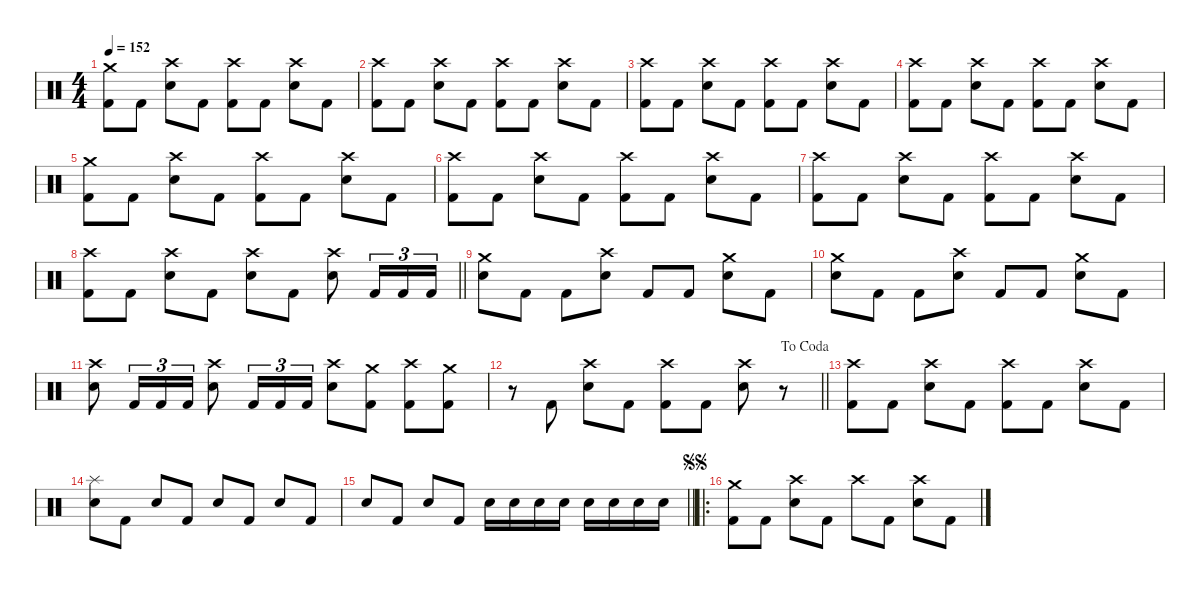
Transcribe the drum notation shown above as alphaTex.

\defaultSystemsLayout 4
\hideDynamics
\bracketExtendMode nobrackets
\singleTrackTrackNamePolicy hidden
\multiTrackTrackNamePolicy hidden
\firstSystemTrackNameMode fullname
\firstSystemTrackNameOrientation horizontal
\otherSystemsTrackNameOrientation horizontal
\track ("Percussion" "drm.") {defaultSystemsLayout 4 instrument percussion}
\staff {score}
\articulation defaults
\ts (4 4)
\tempo 152
\clef neutral
\ks c
("Crash medium (hit)" "Kick (hit) 2").8{dy f beam Down} "Kick (hit) 2".8{beam Down} ("Crash high (hit)" "Snare (hit) 2").8{beam Down} "Kick (hit) 2".8{beam Down} ("Crash high (hit)" "Kick (hit) 2").8{beam Down} "Kick (hit) 2".8{beam Down} ("Crash high (hit)" "Snare (hit) 2").8{beam Down} "Kick (hit) 2".8{beam Down} |
("Crash high (hit)" "Kick (hit) 2").8{beam Down} "Kick (hit) 2".8{beam Down} ("Crash high (hit)" "Snare (hit) 2").8{beam Down} "Kick (hit) 2".8{beam Down} ("Crash high (hit)" "Kick (hit) 2").8{beam Down} "Kick (hit) 2".8{beam Down} ("Crash high (hit)" "Snare (hit) 2").8{beam Down} "Kick (hit) 2".8{beam Down} |
("Crash high (hit)" "Kick (hit) 2").8{beam Down} "Kick (hit) 2".8{beam Down} ("Crash high (hit)" "Snare (hit) 2").8{beam Down} "Kick (hit) 2".8{beam Down} ("Crash high (hit)" "Kick (hit) 2").8{beam Down} "Kick (hit) 2".8{beam Down} ("Crash high (hit)" "Snare (hit) 2").8{beam Down} "Kick (hit) 2".8{beam Down} |
("Crash high (hit)" "Kick (hit) 2").8{beam Down} "Kick (hit) 2".8{beam Down} ("Crash high (hit)" "Snare (hit) 2").8{beam Down} "Kick (hit) 2".8{beam Down} ("Crash high (hit)" "Kick (hit) 2").8{beam Down} "Kick (hit) 2".8{beam Down} ("Crash high (hit)" "Snare (hit) 2").8{beam Down} "Kick (hit) 2".8{beam Down} |
("Crash medium (hit)" "Kick (hit) 2").8{beam Down} "Kick (hit) 2".8{beam Down} ("Crash high (hit)" "Snare (hit) 2").8{beam Down} "Kick (hit) 2".8{beam Down} ("Crash high (hit)" "Kick (hit) 2").8{beam Down} "Kick (hit) 2".8{beam Down} ("Crash high (hit)" "Snare (hit) 2").8{beam Down} "Kick (hit) 2".8{beam Down} |
("Crash high (hit)" "Kick (hit) 2").8{beam Down} "Kick (hit) 2".8{beam Down} ("Crash high (hit)" "Snare (hit) 2").8{beam Down} "Kick (hit) 2".8{beam Down} ("Crash high (hit)" "Kick (hit) 2").8{beam Down} "Kick (hit) 2".8{beam Down} ("Crash high (hit)" "Snare (hit) 2").8{beam Down} "Kick (hit) 2".8{beam Down} |
("Crash high (hit)" "Kick (hit) 2").8{beam Down} "Kick (hit) 2".8{beam Down} ("Crash high (hit)" "Snare (hit) 2").8{beam Down} "Kick (hit) 2".8{beam Down} ("Crash high (hit)" "Kick (hit) 2").8{beam Down} "Kick (hit) 2".8{beam Down} ("Crash high (hit)" "Snare (hit) 2").8{beam Down} "Kick (hit) 2".8{beam Down} |
\barLineRight lightlight
("Crash high (hit)" "Kick (hit) 2").8{beam Down} "Kick (hit) 2".8{beam Down} ("Crash high (hit)" "Snare (hit) 2").8{beam Down} "Kick (hit) 2".8{beam Down} ("Crash high (hit)" "Snare (hit) 2").8{beam Down} "Kick (hit) 2".8{beam Down} ("Crash high (hit)" "Snare (hit) 2").8{beam Down} "Kick (hit) 2".16{tu (3 2) beam Up} "Kick (hit) 2".16{tu (3 2) beam Up} "Kick (hit) 2".16{tu (3 2) beam Up} |
("Crash medium (hit)" "Snare (hit) 2").8{beam Down} "Kick (hit) 2".8{beam Down} "Kick (hit) 2".8{beam Down} ("Crash high (hit)" "Snare (hit) 2").8{beam Down} "Kick (hit) 2".8{beam Up} "Kick (hit) 2".8{beam Up} ("Crash medium (hit)" "Snare (hit) 2").8{beam Down} "Kick (hit) 2".8{beam Down} |
("Crash medium (hit)" "Snare (hit) 2").8{beam Down} "Kick (hit) 2".8{beam Down} "Kick (hit) 2".8{beam Down} ("Crash high (hit)" "Snare (hit) 2").8{beam Down} "Kick (hit) 2".8{beam Up} "Kick (hit) 2".8{beam Up} ("Crash medium (hit)" "Snare (hit) 2").8{beam Down} "Kick (hit) 2".8{beam Down} |
("Crash high (hit)" "Snare (hit) 2").8{beam Down} "Kick (hit) 2".16{tu (3 2) beam Up} "Kick (hit) 2".16{tu (3 2) beam Up} "Kick (hit) 2".16{tu (3 2) beam Up} ("Crash high (hit)" "Snare (hit) 2").8{beam Down} "Kick (hit) 2".16{tu (3 2) beam Up} "Kick (hit) 2".16{tu (3 2) beam Up} "Kick (hit) 2".16{tu (3 2) beam Up} ("Crash high (hit)" "Snare (hit) 2").8{beam Down} ("Crash medium (hit)" "Kick (hit) 2").8{beam Down} ("Crash high (hit)" "Kick (hit) 2").8{beam Down} ("Crash medium (hit)" "Kick (hit) 2").8{beam Down} |
\jump dacoda
\barLineRight lightlight
r.8{beam Down} "Kick (hit) 2".8{beam Up} ("Crash high (hit)" "Snare (hit) 2").8{beam Down} "Kick (hit) 2".8{beam Down} ("Crash high (hit)" "Kick (hit) 2").8{beam Down} "Kick (hit) 2".8{beam Down} ("Crash high (hit)" "Snare (hit) 2").8{beam Down} r.8{beam Down} |
("Crash high (hit)" "Kick (hit) 2").8{beam Down} "Kick (hit) 2".8{beam Down} ("Crash high (hit)" "Snare (hit) 2").8{beam Down} "Kick (hit) 2".8{beam Down} ("Crash high (hit)" "Kick (hit) 2").8{beam Down} "Kick (hit) 2".8{beam Down} ("Crash high (hit)" "Snare (hit) 2").8{beam Down} "Kick (hit) 2".8{beam Down} |
("Splash (hit)" "Snare (hit) 2").8{beam Down} "Kick (hit) 2".8{beam Down} "Snare (hit) 2".8{beam Up} "Kick (hit) 2".8{beam Up} "Snare (hit) 2".8{beam Up} "Kick (hit) 2".8{beam Up} "Snare (hit) 2".8{beam Up} "Kick (hit) 2".8{beam Up} |
\barLineRight lightlight "Snare (hit) 2".8{beam Up} "Kick (hit) 2".8{beam Up} "Snare (hit) 2".8{beam Up} "Kick (hit) 2".8{beam Up} "Snare (hit) 2".16{beam Down} "Snare (hit) 2".16{beam Down} "Snare (hit) 2".16{beam Down} "Snare (hit) 2".16{beam Down} "Snare (hit) 2".16{beam Down} "Snare (hit) 2".16{beam Down} "Snare (hit) 2".16{beam Down} "Snare (hit) 2".16{beam Down}
|
\ro
\jump segnosegno
("Crash medium (hit)" "Kick (hit) 2").8{beam Down} "Kick (hit) 2".8{beam Down} ("Crash high (hit)" "Snare (hit) 2").8{beam Down} "Kick (hit) 2".8{beam Down} "Crash high (hit)".8{beam Down} "Kick (hit) 2".8{beam Down} ("Crash high (hit)" "Snare (hit) 2").8{beam Down} "Kick (hit) 2".8{beam Down}
